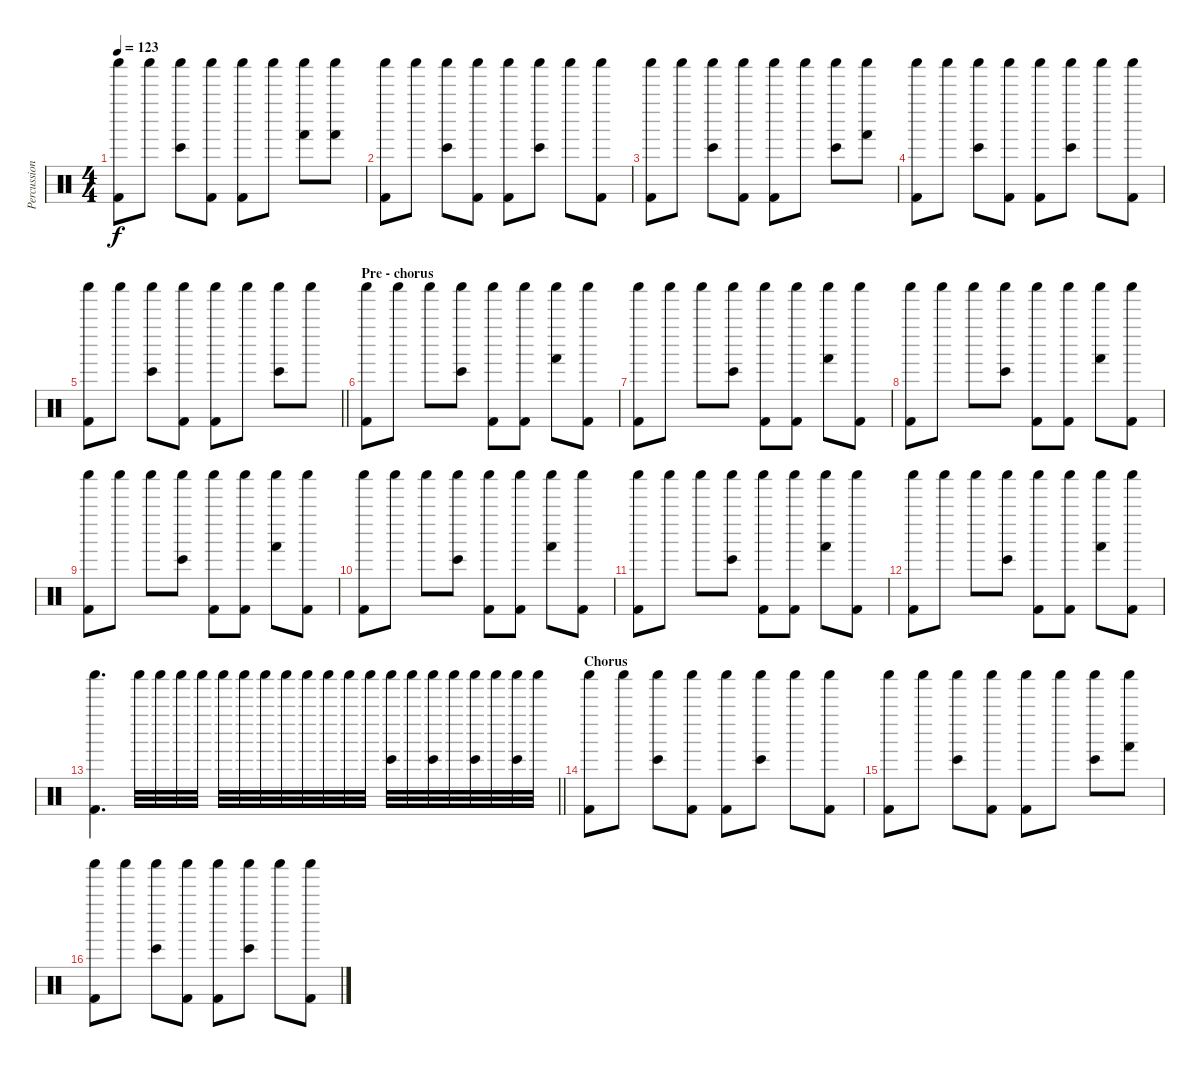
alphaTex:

\track ("Percussion" "Percussion") {instrument percussion}
\staff {score}
\articulation defaults
\ts (4 4)
\tempo 123
\clef neutral
\ks c
("Shaker (hit)" "Kick (hit) 2").8{dy f} "Shaker (hit)".8 ("Shaker (hit)" "Bongo High (hit)").8 ("Shaker (hit)" "Kick (hit) 2").8 ("Shaker (hit)" "Kick (hit) 2").8 "Shaker (hit)".8 ("Shaker (hit)" "Hand (hit)").8 ("Shaker (hit)" "Hand (hit)").8 |
("Shaker (hit)" "Kick (hit) 2").8 "Shaker (hit)".8 ("Shaker (hit)" "Bongo High (hit)").8 ("Shaker (hit)" "Kick (hit) 2").8 ("Shaker (hit)" "Kick (hit) 2").8 ("Shaker (hit)" "Bongo High (hit)").8 "Shaker (hit)".8 ("Shaker (hit)" "Kick (hit) 2").8 |
("Shaker (hit)" "Kick (hit) 2").8 "Shaker (hit)".8 ("Shaker (hit)" "Bongo High (hit)").8 ("Shaker (hit)" "Kick (hit) 2").8 ("Shaker (hit)" "Kick (hit) 2").8 "Shaker (hit)".8 ("Shaker (hit)" "Bongo High (hit)").8 ("Shaker (hit)" "Hand (hit)").8 |
("Shaker (hit)" "Kick (hit) 2").8 "Shaker (hit)".8 ("Shaker (hit)" "Bongo High (hit)").8 ("Shaker (hit)" "Kick (hit) 2").8 ("Shaker (hit)" "Kick (hit) 2").8 ("Shaker (hit)" "Bongo High (hit)").8 "Shaker (hit)".8 ("Shaker (hit)" "Kick (hit) 2").8 |
\barLineRight lightlight
("Shaker (hit)" "Kick (hit) 2").8 "Shaker (hit)".8 ("Shaker (hit)" "Bongo High (hit)").8 ("Shaker (hit)" "Kick (hit) 2").8 ("Shaker (hit)" "Kick (hit) 2").8 "Shaker (hit)".8 ("Shaker (hit)" "Bongo High (hit)").8 "Shaker (hit)".8 |
\section ("" "Pre - chorus")
("Shaker (hit)" "Kick (hit) 2").8 "Shaker (hit)".8 "Shaker (hit)".8 ("Shaker (hit)" "Bongo High (hit)").8 ("Shaker (hit)" "Kick (hit) 2").8 ("Shaker (hit)" "Kick (hit) 2").8 ("Shaker (hit)" "Hand (hit)").8 ("Shaker (hit)" "Kick (hit) 2").8 |
("Shaker (hit)" "Kick (hit) 2").8 "Shaker (hit)".8 "Shaker (hit)".8 ("Shaker (hit)" "Bongo High (hit)").8 ("Shaker (hit)" "Kick (hit) 2").8 ("Shaker (hit)" "Kick (hit) 2").8 ("Shaker (hit)" "Hand (hit)").8 ("Shaker (hit)" "Kick (hit) 2").8 |
("Shaker (hit)" "Kick (hit) 2").8 "Shaker (hit)".8 "Shaker (hit)".8 ("Shaker (hit)" "Bongo High (hit)").8 ("Shaker (hit)" "Kick (hit) 2").8 ("Shaker (hit)" "Kick (hit) 2").8 ("Shaker (hit)" "Hand (hit)").8 ("Shaker (hit)" "Kick (hit) 2").8 |
("Shaker (hit)" "Kick (hit) 2").8 "Shaker (hit)".8 "Shaker (hit)".8 ("Shaker (hit)" "Bongo High (hit)").8 ("Shaker (hit)" "Kick (hit) 2").8 ("Shaker (hit)" "Kick (hit) 2").8 ("Shaker (hit)" "Hand (hit)").8 ("Shaker (hit)" "Kick (hit) 2").8 |
("Shaker (hit)" "Kick (hit) 2").8 "Shaker (hit)".8 "Shaker (hit)".8 ("Shaker (hit)" "Bongo High (hit)").8 ("Shaker (hit)" "Kick (hit) 2").8 ("Shaker (hit)" "Kick (hit) 2").8 ("Shaker (hit)" "Hand (hit)").8 ("Shaker (hit)" "Kick (hit) 2").8 |
("Shaker (hit)" "Kick (hit) 2").8 "Shaker (hit)".8 "Shaker (hit)".8 ("Shaker (hit)" "Bongo High (hit)").8 ("Shaker (hit)" "Kick (hit) 2").8 ("Shaker (hit)" "Kick (hit) 2").8 ("Shaker (hit)" "Hand (hit)").8 ("Shaker (hit)" "Kick (hit) 2").8 |
("Shaker (hit)" "Kick (hit) 2").8 "Shaker (hit)".8 "Shaker (hit)".8 ("Shaker (hit)" "Bongo High (hit)").8 ("Shaker (hit)" "Kick (hit) 2").8 ("Shaker (hit)" "Kick (hit) 2").8 ("Shaker (hit)" "Hand (hit)").8 ("Shaker (hit)" "Kick (hit) 2").8 |
\barLineRight lightlight
("Shaker (hit)" "Kick (hit) 2").4{d} "Shaker (hit)".32 "Shaker (hit)".32 "Shaker (hit)".32 "Shaker (hit)".32 "Shaker (hit)".32 "Shaker (hit)".32 "Shaker (hit)".32 "Shaker (hit)".32 "Shaker (hit)".32 "Shaker (hit)".32 "Shaker (hit)".32 "Shaker (hit)".32 ("Shaker (hit)" "Bongo High (hit)").32 "Shaker (hit)".32 ("Shaker (hit)" "Bongo High (hit)").32 "Shaker (hit)".32 ("Shaker (hit)" "Bongo High (hit)").32 "Shaker (hit)".32 ("Shaker (hit)" "Bongo High (hit)").32 "Shaker (hit)".32 |
\section ("" "Chorus")
("Shaker (hit)" "Kick (hit) 2").8 "Shaker (hit)".8 ("Shaker (hit)" "Bongo High (hit)").8 ("Shaker (hit)" "Kick (hit) 2").8 ("Shaker (hit)" "Kick (hit) 2").8 ("Shaker (hit)" "Bongo High (hit)").8 "Shaker (hit)".8 ("Shaker (hit)" "Kick (hit) 2").8 |
("Shaker (hit)" "Kick (hit) 2").8 "Shaker (hit)".8 ("Shaker (hit)" "Bongo High (hit)").8 ("Shaker (hit)" "Kick (hit) 2").8 ("Shaker (hit)" "Kick (hit) 2").8 "Shaker (hit)".8 ("Shaker (hit)" "Bongo High (hit)").8 ("Shaker (hit)" "Hand (hit)").8 |
("Shaker (hit)" "Kick (hit) 2").8 "Shaker (hit)".8 ("Shaker (hit)" "Bongo High (hit)").8 ("Shaker (hit)" "Kick (hit) 2").8 ("Shaker (hit)" "Kick (hit) 2").8 ("Shaker (hit)" "Bongo High (hit)").8 "Shaker (hit)".8 ("Shaker (hit)" "Kick (hit) 2").8
